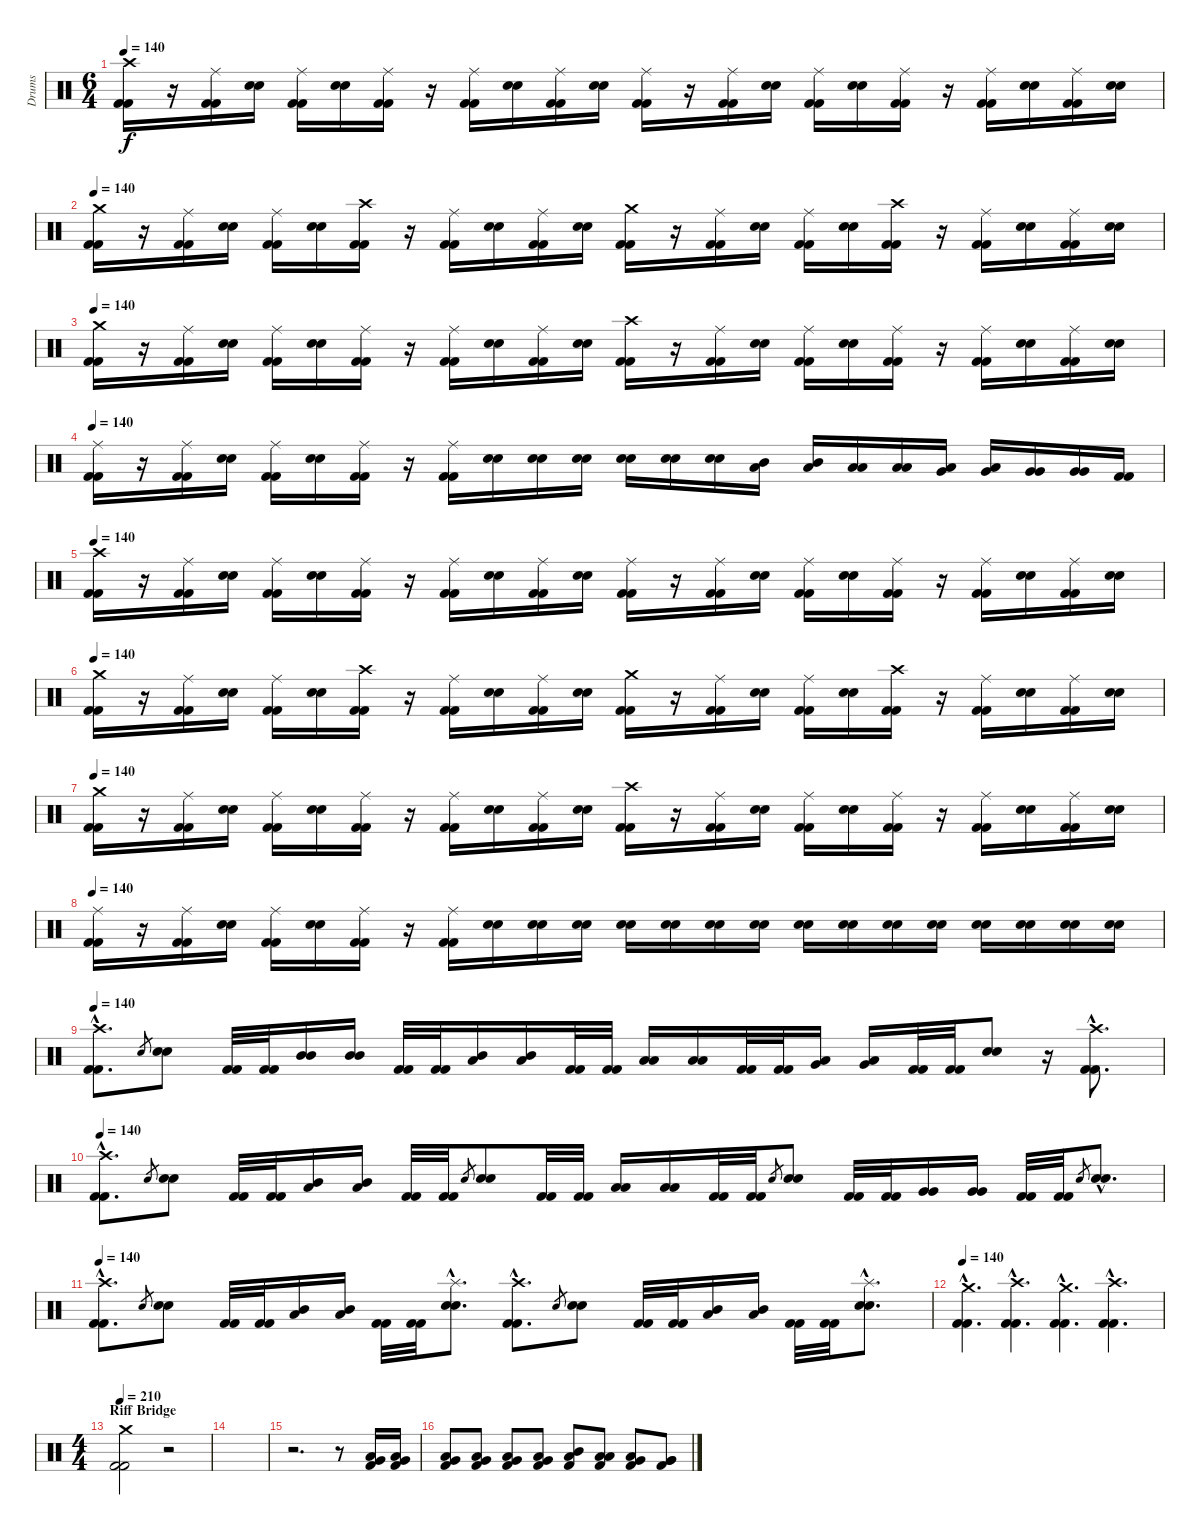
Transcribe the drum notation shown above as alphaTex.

\track ("Drums" "Drums") {instrument percussion}
\staff {score}
\articulation defaults
\ts (6 4)
\tempo 140
\clef neutral
\ks c
("Crash high (hit)" "Kick (hit) 2" "Kick (hit) 2").16{dy f} r.16 ("Ride (middle)" "Kick (hit) 2" "Kick (hit) 2").16 ("Snare (hit) 2" "Snare (hit) 2").16 ("Ride (middle)" "Kick (hit) 2" "Kick (hit) 2").16 ("Snare (hit) 2" "Snare (hit) 2").16 ("Ride (middle)" "Kick (hit) 2" "Kick (hit) 2").16 r.16 ("Ride (middle)" "Kick (hit) 2" "Kick (hit) 2").16 ("Snare (hit) 2" "Snare (hit) 2").16 ("Ride (middle)" "Kick (hit) 2" "Kick (hit) 2").16 ("Snare (hit) 2" "Snare (hit) 2").16 ("Ride (middle)" "Kick (hit) 2" "Kick (hit) 2").16 r.16 ("Ride (middle)" "Kick (hit) 2" "Kick (hit) 2").16 ("Snare (hit) 2" "Snare (hit) 2").16 ("Ride (middle)" "Kick (hit) 2" "Kick (hit) 2").16 ("Snare (hit) 2" "Snare (hit) 2").16 ("Ride (middle)" "Kick (hit) 2" "Kick (hit) 2").16 r.16 ("Ride (middle)" "Kick (hit) 2" "Kick (hit) 2").16 ("Snare (hit) 2" "Snare (hit) 2").16 ("Ride (middle)" "Kick (hit) 2" "Kick (hit) 2").16 ("Snare (hit) 2" "Snare (hit) 2").16 |
\tempo 140
("Crash medium (hit)" "Kick (hit) 2" "Kick (hit) 2").16 r.16 ("Ride (middle)" "Kick (hit) 2" "Kick (hit) 2").16 ("Snare (hit) 2" "Snare (hit) 2").16 ("Ride (middle)" "Kick (hit) 2" "Kick (hit) 2").16 ("Snare (hit) 2" "Snare (hit) 2").16 ("Crash high (hit)" "Kick (hit) 2" "Kick (hit) 2").16 r.16 ("Ride (middle)" "Kick (hit) 2" "Kick (hit) 2").16 ("Snare (hit) 2" "Snare (hit) 2").16 ("Ride (middle)" "Kick (hit) 2" "Kick (hit) 2").16 ("Snare (hit) 2" "Snare (hit) 2").16 ("Crash medium (hit)" "Kick (hit) 2" "Kick (hit) 2").16 r.16 ("Ride (middle)" "Kick (hit) 2" "Kick (hit) 2").16 ("Snare (hit) 2" "Snare (hit) 2").16 ("Ride (middle)" "Kick (hit) 2" "Kick (hit) 2").16 ("Snare (hit) 2" "Snare (hit) 2").16 ("Crash high (hit)" "Kick (hit) 2" "Kick (hit) 2").16 r.16 ("Ride (middle)" "Kick (hit) 2" "Kick (hit) 2").16 ("Snare (hit) 2" "Snare (hit) 2").16 ("Ride (middle)" "Kick (hit) 2" "Kick (hit) 2").16 ("Snare (hit) 2" "Snare (hit) 2").16 |
\tempo 140
("Crash medium (hit)" "Kick (hit) 2" "Kick (hit) 2").16 r.16 ("Ride (middle)" "Kick (hit) 2" "Kick (hit) 2").16 ("Snare (hit) 2" "Snare (hit) 2").16 ("Ride (middle)" "Kick (hit) 2" "Kick (hit) 2").16 ("Snare (hit) 2" "Snare (hit) 2").16 ("Ride (middle)" "Kick (hit) 2" "Kick (hit) 2").16 r.16 ("Ride (middle)" "Kick (hit) 2" "Kick (hit) 2").16 ("Snare (hit) 2" "Snare (hit) 2").16 ("Ride (middle)" "Kick (hit) 2" "Kick (hit) 2").16 ("Snare (hit) 2" "Snare (hit) 2").16 ("Crash high (hit)" "Kick (hit) 2" "Kick (hit) 2").16 r.16 ("Ride (middle)" "Kick (hit) 2" "Kick (hit) 2").16 ("Snare (hit) 2" "Snare (hit) 2").16 ("Ride (middle)" "Kick (hit) 2" "Kick (hit) 2").16 ("Snare (hit) 2" "Snare (hit) 2").16 ("Ride (middle)" "Kick (hit) 2" "Kick (hit) 2").16 r.16 ("Ride (middle)" "Kick (hit) 2" "Kick (hit) 2").16 ("Snare (hit) 2" "Snare (hit) 2").16 ("Ride (middle)" "Kick (hit) 2" "Kick (hit) 2").16 ("Snare (hit) 2" "Snare (hit) 2").16 |
\tempo 140
("Ride (middle)" "Kick (hit) 2" "Kick (hit) 2").16 r.16 ("Ride (middle)" "Kick (hit) 2" "Kick (hit) 2").16 ("Snare (hit) 2" "Snare (hit) 2").16 ("Ride (middle)" "Kick (hit) 2" "Kick (hit) 2").16 ("Snare (hit) 2" "Snare (hit) 2").16 ("Ride (middle)" "Kick (hit) 2" "Kick (hit) 2").16 r.16 ("Ride (middle)" "Kick (hit) 2" "Kick (hit) 2").16 ("Snare (hit) 2" "Snare (hit) 2").16 ("Snare (hit) 2" "Snare (hit) 2").16 ("Snare (hit) 2" "Snare (hit) 2").16 ("Snare (hit) 2" "Snare (hit) 2").16 ("Snare (hit) 2" "Snare (hit) 2").16 ("Snare (hit) 2" "Snare (hit) 2").16 ("Mid Tom (hit)" "Low Tom (hit)").16 ("Mid Tom (hit)" "Low Tom (hit)").16 ("Low Tom (hit)" "Low Tom (hit)").16 ("Low Tom (hit)" "Low Tom (hit)").16 ("Very Low Tom (hit)" "Low Tom (hit)").16 ("Very Low Tom (hit)" "Low Tom (hit)").16 ("Very Low Tom (hit)" "Very Low Tom (hit)").16 ("Very Low Tom (hit)" "Very Low Tom (hit)").16 ("Kick (hit) 2" "Kick (hit) 2").16 |
\tempo 140
("Crash high (hit)" "Kick (hit) 2" "Kick (hit) 2").16 r.16 ("Ride (middle)" "Kick (hit) 2" "Kick (hit) 2").16 ("Snare (hit) 2" "Snare (hit) 2").16 ("Ride (middle)" "Kick (hit) 2" "Kick (hit) 2").16 ("Snare (hit) 2" "Snare (hit) 2").16 ("Ride (middle)" "Kick (hit) 2" "Kick (hit) 2").16 r.16 ("Ride (middle)" "Kick (hit) 2" "Kick (hit) 2").16 ("Snare (hit) 2" "Snare (hit) 2").16 ("Ride (middle)" "Kick (hit) 2" "Kick (hit) 2").16 ("Snare (hit) 2" "Snare (hit) 2").16 ("Ride (middle)" "Kick (hit) 2" "Kick (hit) 2").16 r.16 ("Ride (middle)" "Kick (hit) 2" "Kick (hit) 2").16 ("Snare (hit) 2" "Snare (hit) 2").16 ("Ride (middle)" "Kick (hit) 2" "Kick (hit) 2").16 ("Snare (hit) 2" "Snare (hit) 2").16 ("Ride (middle)" "Kick (hit) 2" "Kick (hit) 2").16 r.16 ("Ride (middle)" "Kick (hit) 2" "Kick (hit) 2").16 ("Snare (hit) 2" "Snare (hit) 2").16 ("Ride (middle)" "Kick (hit) 2" "Kick (hit) 2").16 ("Snare (hit) 2" "Snare (hit) 2").16 |
\tempo 140
("Crash medium (hit)" "Kick (hit) 2" "Kick (hit) 2").16 r.16 ("Ride (middle)" "Kick (hit) 2" "Kick (hit) 2").16 ("Snare (hit) 2" "Snare (hit) 2").16 ("Ride (middle)" "Kick (hit) 2" "Kick (hit) 2").16 ("Snare (hit) 2" "Snare (hit) 2").16 ("Crash high (hit)" "Kick (hit) 2" "Kick (hit) 2").16 r.16 ("Ride (middle)" "Kick (hit) 2" "Kick (hit) 2").16 ("Snare (hit) 2" "Snare (hit) 2").16 ("Ride (middle)" "Kick (hit) 2" "Kick (hit) 2").16 ("Snare (hit) 2" "Snare (hit) 2").16 ("Crash medium (hit)" "Kick (hit) 2" "Kick (hit) 2").16 r.16 ("Ride (middle)" "Kick (hit) 2" "Kick (hit) 2").16 ("Snare (hit) 2" "Snare (hit) 2").16 ("Ride (middle)" "Kick (hit) 2" "Kick (hit) 2").16 ("Snare (hit) 2" "Snare (hit) 2").16 ("Crash high (hit)" "Kick (hit) 2" "Kick (hit) 2").16 r.16 ("Ride (middle)" "Kick (hit) 2" "Kick (hit) 2").16 ("Snare (hit) 2" "Snare (hit) 2").16 ("Ride (middle)" "Kick (hit) 2" "Kick (hit) 2").16 ("Snare (hit) 2" "Snare (hit) 2").16 |
\tempo 140
("Crash medium (hit)" "Kick (hit) 2" "Kick (hit) 2").16 r.16 ("Ride (middle)" "Kick (hit) 2" "Kick (hit) 2").16 ("Snare (hit) 2" "Snare (hit) 2").16 ("Ride (middle)" "Kick (hit) 2" "Kick (hit) 2").16 ("Snare (hit) 2" "Snare (hit) 2").16 ("Ride (middle)" "Kick (hit) 2" "Kick (hit) 2").16 r.16 ("Ride (middle)" "Kick (hit) 2" "Kick (hit) 2").16 ("Snare (hit) 2" "Snare (hit) 2").16 ("Ride (middle)" "Kick (hit) 2" "Kick (hit) 2").16 ("Snare (hit) 2" "Snare (hit) 2").16 ("Crash high (hit)" "Kick (hit) 2" "Kick (hit) 2").16 r.16 ("Ride (middle)" "Kick (hit) 2" "Kick (hit) 2").16 ("Snare (hit) 2" "Snare (hit) 2").16 ("Ride (middle)" "Kick (hit) 2" "Kick (hit) 2").16 ("Snare (hit) 2" "Snare (hit) 2").16 ("Ride (middle)" "Kick (hit) 2" "Kick (hit) 2").16 r.16 ("Ride (middle)" "Kick (hit) 2" "Kick (hit) 2").16 ("Snare (hit) 2" "Snare (hit) 2").16 ("Ride (middle)" "Kick (hit) 2" "Kick (hit) 2").16 ("Snare (hit) 2" "Snare (hit) 2").16 |
\tempo 140
("Ride (middle)" "Kick (hit) 2" "Kick (hit) 2").16 r.16 ("Ride (middle)" "Kick (hit) 2" "Kick (hit) 2").16 ("Snare (hit) 2" "Snare (hit) 2").16 ("Ride (middle)" "Kick (hit) 2" "Kick (hit) 2").16 ("Snare (hit) 2" "Snare (hit) 2").16 ("Ride (middle)" "Kick (hit) 2" "Kick (hit) 2").16 r.16 ("Ride (middle)" "Kick (hit) 2" "Kick (hit) 2").16 ("Snare (hit) 2" "Snare (hit) 2").16 ("Snare (hit) 2" "Snare (hit) 2").16 ("Snare (hit) 2" "Snare (hit) 2").16 ("Snare (hit) 2" "Snare (hit) 2").16 ("Snare (hit) 2" "Snare (hit) 2").16 ("Snare (hit) 2" "Snare (hit) 2").16 ("Snare (hit) 2" "Snare (hit) 2").16 ("Snare (hit) 2" "Snare (hit) 2").16 ("Snare (hit) 2" "Snare (hit) 2").16 ("Snare (hit) 2" "Snare (hit) 2").16 ("Snare (hit) 2" "Snare (hit) 2").16 ("Snare (hit) 2" "Snare (hit) 2").16 ("Snare (hit) 2" "Snare (hit) 2").16 ("Snare (hit) 2" "Snare (hit) 2").16 ("Snare (hit) 2" "Snare (hit) 2").16 |
\tempo 140
("Crash high (hit)"{hac} "Kick (hit) 2"{hac} "Kick (hit) 2"{hac}).8{d} "Snare (hit) 2".8{gr} ("Snare (hit) 2" "Snare (hit) 2").8 ("Kick (hit) 2" "Kick (hit) 2").32 ("Kick (hit) 2" "Kick (hit) 2").32 ("Mid Tom (hit)" "Mid Tom (hit)").16 ("Mid Tom (hit)" "Mid Tom (hit)").16 ("Kick (hit) 2" "Kick (hit) 2").32 ("Kick (hit) 2" "Kick (hit) 2").32 ("Low Tom (hit)" "Mid Tom (hit)").16 ("Mid Tom (hit)" "Low Tom (hit)").16 ("Kick (hit) 2" "Kick (hit) 2").32 ("Kick (hit) 2" "Kick (hit) 2").32 ("Low Tom (hit)" "Low Tom (hit)").16 ("Low Tom (hit)" "Low Tom (hit)").16 ("Kick (hit) 2" "Kick (hit) 2").32 ("Kick (hit) 2" "Kick (hit) 2").32 ("Very Low Tom (hit)" "Low Tom (hit)").16 ("Very Low Tom (hit)" "Low Tom (hit)").16 ("Kick (hit) 2" "Kick (hit) 2").32 ("Kick (hit) 2" "Kick (hit) 2").32 ("Snare (hit) 2" "Snare (hit) 2").8 r.16 ("Crash high (hit)"{hac} "Kick (hit) 2"{hac} "Kick (hit) 2"{hac}).8{d} |
\tempo 140
("Crash high (hit)"{hac} "Kick (hit) 2"{hac} "Kick (hit) 2"{hac}).8{d} "Snare (hit) 2".8{gr} ("Snare (hit) 2" "Snare (hit) 2").8 ("Kick (hit) 2" "Kick (hit) 2").32 ("Kick (hit) 2" "Kick (hit) 2").32 ("Mid Tom (hit)" "Low Tom (hit)").16 ("Mid Tom (hit)" "Low Tom (hit)").16 ("Kick (hit) 2" "Kick (hit) 2").32 ("Kick (hit) 2" "Kick (hit) 2").32 "Snare (hit) 2".8{gr} ("Snare (hit) 2" "Snare (hit) 2").8 ("Kick (hit) 2" "Kick (hit) 2").32 ("Kick (hit) 2" "Kick (hit) 2").32 ("Low Tom (hit)" "Low Tom (hit)").16 ("Low Tom (hit)" "Low Tom (hit)").16 ("Kick (hit) 2" "Kick (hit) 2").32 ("Kick (hit) 2" "Kick (hit) 2").32 "Snare (hit) 2".8{gr} ("Snare (hit) 2" "Snare (hit) 2").8 ("Kick (hit) 2" "Kick (hit) 2").32 ("Kick (hit) 2" "Kick (hit) 2").32 ("Very Low Tom (hit)" "Very Low Tom (hit)").16 ("Very Low Tom (hit)" "Very Low Tom (hit)").16 ("Kick (hit) 2" "Kick (hit) 2").32 ("Kick (hit) 2" "Kick (hit) 2").32 "Snare (hit) 2".8{gr} ("Snare (hit) 2"{hac} "Snare (hit) 2"{hac}).8{d} |
\tempo 140
("Crash high (hit)"{hac} "Kick (hit) 2"{hac} "Kick (hit) 2"{hac}).8{d} "Snare (hit) 2".8{gr} ("Snare (hit) 2" "Snare (hit) 2").8 ("Kick (hit) 2" "Kick (hit) 2").32 ("Kick (hit) 2" "Kick (hit) 2").32 ("Mid Tom (hit)" "Low Tom (hit)").16 ("Mid Tom (hit)" "Low Tom (hit)").16 ("Kick (hit) 2" "Kick (hit) 2").32 ("Kick (hit) 2" "Kick (hit) 2").32 ("Splash (hit)"{hac} "Snare (hit) 2"{hac} "Snare (hit) 2"{hac}).8{d} ("Crash high (hit)"{hac} "Kick (hit) 2"{hac} "Kick (hit) 2"{hac}).8{d} "Snare (hit) 2".8{gr} ("Snare (hit) 2" "Snare (hit) 2").8 ("Kick (hit) 2" "Kick (hit) 2").32 ("Kick (hit) 2" "Kick (hit) 2").32 ("Mid Tom (hit)" "Low Tom (hit)").16 ("Mid Tom (hit)" "Low Tom (hit)").16 ("Kick (hit) 2" "Kick (hit) 2").32 ("Kick (hit) 2" "Kick (hit) 2").32 ("Splash (hit)"{hac} "Snare (hit) 2"{hac} "Snare (hit) 2"{hac}).8{d} |
\tempo 140
("Crash medium (hit)"{hac} "Kick (hit) 2"{hac} "Kick (hit) 2"{hac}).4{d} ("Crash high (hit)"{hac} "Kick (hit) 2"{hac} "Kick (hit) 2"{hac}).4{d} ("Crash medium (hit)"{hac} "Kick (hit) 2"{hac} "Kick (hit) 2"{hac}).4{d} ("Crash high (hit)"{hac} "Kick (hit) 2"{hac} "Kick (hit) 2"{hac}).4{d} |
\ts (4 4)
\section ("" "Riff Bridge")
\tempo 210
("Crash medium (hit)" "Kick (hit) 2" "Kick (hit) 2").2 r.2 |
|
r.2{d} r.8 ("Low Tom (hit)" "Very Low Tom (hit)" "Kick (hit) 2").16 ("Low Tom (hit)" "Very Low Tom (hit)" "Kick (hit) 2").16 |
("Low Tom (hit)" "Very Low Tom (hit)" "Kick (hit) 2").8 ("Low Tom (hit)" "Very Low Tom (hit)" "Kick (hit) 2").8 ("Low Tom (hit)" "Very Low Tom (hit)" "Kick (hit) 2").8 ("Low Tom (hit)" "Very Low Tom (hit)" "Kick (hit) 2").8 ("Mid Tom (hit)" "Low Tom (hit)" "Kick (hit) 2").8 ("Low Tom (hit)" "Low Tom (hit)" "Kick (hit) 2").8 ("Very Low Tom (hit)" "Low Tom (hit)" "Kick (hit) 2").8 ("Very Low Tom (hit)" "Very Low Tom (hit)" "Kick (hit) 2").8
